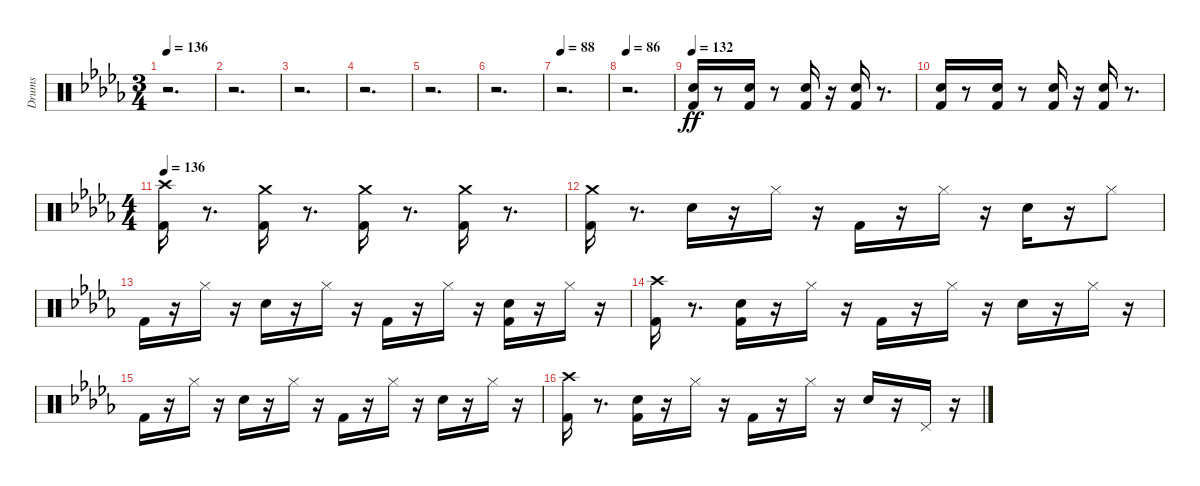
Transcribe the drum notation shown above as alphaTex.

\track ("Drums" "Drums") {instrument percussion}
\staff {score}
\articulation defaults
\ts (3 4)
\tempo 136
\clef neutral
\ks db
r.2{d dy ff} |
r.2{d} |
r.2{d} |
r.2{d} |
r.2{d} |
r.2{d} |
\tempo 88
r.2{d} |
\tempo 86
r.2{d} |
\tempo 132
("Kick (hit) 2" "Electric Snare (hit)").16 r.8 ("Kick (hit) 2" "Electric Snare (hit)").16 r.8 ("Kick (hit) 2" "Electric Snare (hit)").16 r.16 ("Kick (hit) 2" "Electric Snare (hit)").16 r.8{d} |
("Kick (hit) 2" "Electric Snare (hit)").16 r.8 ("Kick (hit) 2" "Electric Snare (hit)").16 r.8 ("Kick (hit) 2" "Electric Snare (hit)").16 r.16 ("Kick (hit) 2" "Electric Snare (hit)").16 r.8{d} |
\ts (4 4)
\tempo 136
("Kick (hit) 2" "Crash high (hit)").16 r.8{d} ("Kick (hit) 2" "Crash medium (hit)").16 r.8{d} ("Kick (hit) 2" "Crash medium (hit)").16 r.8{d} ("Kick (hit) 2" "Crash medium (hit)").16 r.8{d} |
("Kick (hit) 2" "Crash medium (hit)").16 r.8{d} "Electric Snare (hit)".16 r.16 "Hi-Hat (closed)".16 r.16 "Kick (hit) 2".16 r.16 "Hi-Hat (closed)".16 r.16 "Electric Snare (hit)".16 r.16 "Hi-Hat (closed)".8 |
"Kick (hit) 2".16 r.16 "Hi-Hat (closed)".16 r.16 "Electric Snare (hit)".16 r.16 "Hi-Hat (closed)".16 r.16 "Kick (hit) 2".16 r.16 "Hi-Hat (closed)".16 r.16 ("Kick (hit) 2" "Electric Snare (hit)").16 r.16 "Hi-Hat (closed)".16 r.16 |
("Kick (hit) 2" "Crash high (hit)").16 r.8{d} ("Kick (hit) 2" "Electric Snare (hit)").16 r.16 "Hi-Hat (closed)".16 r.16 "Kick (hit) 2".16 r.16 "Hi-Hat (closed)".16 r.16 "Electric Snare (hit)".16 r.16 "Hi-Hat (closed)".16 r.16 |
"Kick (hit) 2".16 r.16 "Hi-Hat (closed)".16 r.16 "Electric Snare (hit)".16 r.16 "Hi-Hat (closed)".16 r.16 "Kick (hit) 2".16 r.16 "Hi-Hat (closed)".16 r.16 "Electric Snare (hit)".16 r.16 "Hi-Hat (closed)".16 r.16 |
("Kick (hit) 2" "Crash high (hit)").16 r.8{d} ("Kick (hit) 2" "Electric Snare (hit)").16 r.16 "Hi-Hat (closed)".16 r.16 "Kick (hit) 2".16 r.16 "Hi-Hat (closed)".16 r.16 "Electric Snare (hit)".16 r.16 "Pedal Hi-Hat (hit)".16 r.16
